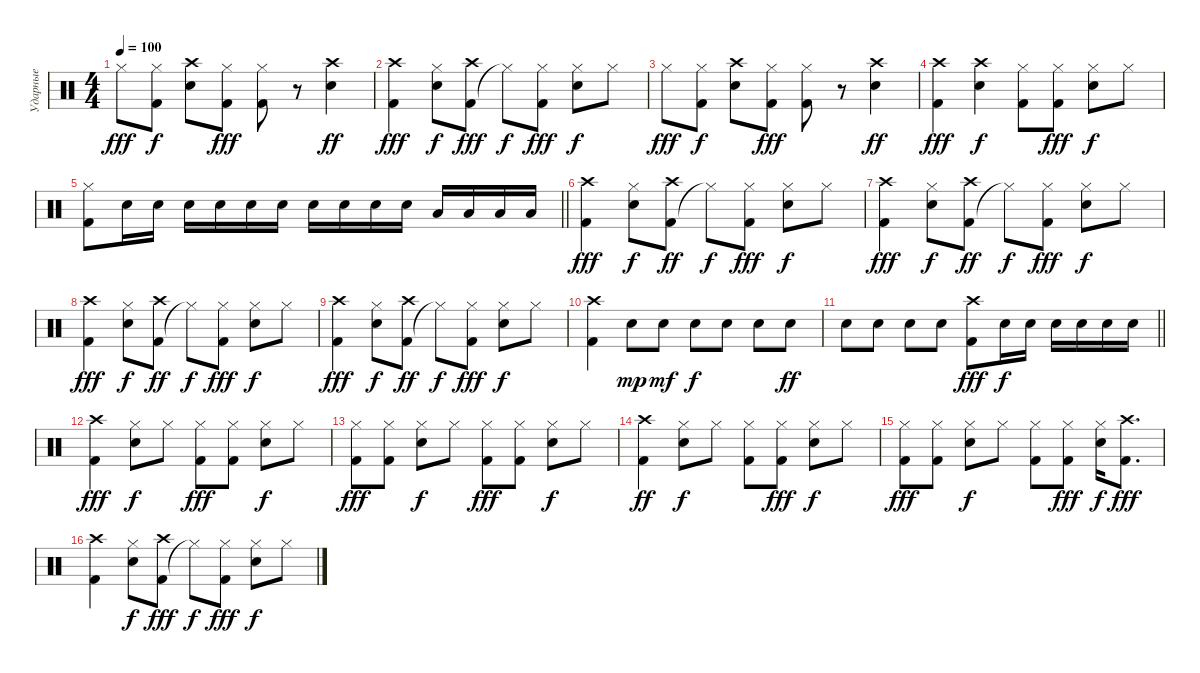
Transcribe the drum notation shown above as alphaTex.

\track ("Ударные" "Ударные") {instrument percussion}
\staff
\articulation defaults
\ts (4 4)
\tempo 100
\clef neutral
\ks c "Hi-Hat (closed)".8{dy fff}
("Kick (hit) 2" "Hi-Hat (closed)").8{dy f} ("Snare (hit) 2" "Crash high (hit)").8 ("Kick (hit) 2" "Hi-Hat (closed)").8{dy fff} ("Kick (hit) 2" "Hi-Hat (closed)").8 r.8 ("Snare (hit) 2" "Crash high (hit)").4{dy ff} |
("Kick (hit) 2" "Crash high (hit)").4{dy fff} ("Snare (hit) 2" "Hi-Hat (closed)").8{dy f} ("Kick (hit) 2" "Crash high (hit)").8{dy fff} "Hi-Hat (closed)"{t}.8{dy f} ("Kick (hit) 2" "Hi-Hat (closed)").8{dy fff} ("Snare (hit) 2" "Hi-Hat (closed)").8{dy f} "Hi-Hat (closed)".8 |
"Hi-Hat (closed)".8{dy fff} ("Kick (hit) 2" "Hi-Hat (closed)").8{dy f} ("Snare (hit) 2" "Crash high (hit)").8 ("Kick (hit) 2" "Hi-Hat (closed)").8{dy fff} ("Kick (hit) 2" "Hi-Hat (closed)").8 r.8 ("Snare (hit) 2" "Crash high (hit)").4{dy ff} |
("Kick (hit) 2" "Crash high (hit)").4{dy fff} ("Snare (hit) 2" "Crash high (hit)").4{dy f} ("Kick (hit) 2" "Hi-Hat (closed)").8 ("Kick (hit) 2" "Hi-Hat (closed)").8{dy fff} ("Snare (hit) 2" "Hi-Hat (closed)").8{dy f} "Hi-Hat (closed)".8 |
\barLineRight lightlight
("Kick (hit) 2" "Hi-Hat (closed)").8 "Snare (hit) 2".16 "Snare (hit) 2".16 "Snare (hit) 2".16 "Snare (hit) 2".16 "Electric Snare (hit)".16 "Electric Snare (hit)".16 "Electric Snare (hit)".16 "Electric Snare (hit)".16 "Electric Snare (hit)".16 "Electric Snare (hit)".16 "Low Tom (hit)".16 "Low Tom (hit)".16 "Low Tom (hit)".16 "Low Tom (hit)".16 |
("Kick (hit) 2" "Crash high (hit)").4{dy fff} ("Snare (hit) 2" "Hi-Hat (closed)").8{dy f} ("Kick (hit) 2" "Crash high (hit)").8{dy ff} "Hi-Hat (closed)"{t}.8{dy f} ("Kick (hit) 2" "Hi-Hat (closed)").8{dy fff} ("Snare (hit) 2" "Hi-Hat (closed)").8{dy f} "Hi-Hat (closed)".8 |
("Kick (hit) 2" "Crash high (hit)").4{dy fff} ("Snare (hit) 2" "Hi-Hat (closed)").8{dy f} ("Kick (hit) 2" "Crash high (hit)").8{dy ff} "Hi-Hat (closed)"{t}.8{dy f} ("Kick (hit) 2" "Hi-Hat (closed)").8{dy fff} ("Snare (hit) 2" "Hi-Hat (closed)").8{dy f} "Hi-Hat (closed)".8 |
("Kick (hit) 2" "Crash high (hit)").4{dy fff} ("Snare (hit) 2" "Hi-Hat (closed)").8{dy f} ("Kick (hit) 2" "Crash high (hit)").8{dy ff} "Hi-Hat (closed)"{t}.8{dy f} ("Kick (hit) 2" "Hi-Hat (closed)").8{dy fff} ("Snare (hit) 2" "Hi-Hat (closed)").8{dy f} "Hi-Hat (closed)".8 |
("Kick (hit) 2" "Crash high (hit)").4{dy fff} ("Snare (hit) 2" "Hi-Hat (closed)").8{dy f} ("Kick (hit) 2" "Crash high (hit)").8{dy ff} "Hi-Hat (closed)"{t}.8{dy f} ("Kick (hit) 2" "Hi-Hat (closed)").8{dy fff} ("Snare (hit) 2" "Hi-Hat (closed)").8{dy f} "Hi-Hat (closed)".8 |
("Kick (hit) 2" "Crash high (hit)").4 "Snare (hit) 2".8{dy mp} "Snare (hit) 2".8{dy mf} "Snare (hit) 2".8{dy f} "Snare (hit) 2".8 "Snare (hit) 2".8 "Snare (hit) 2".8{dy ff} |
\barLineRight lightlight "Snare (hit) 2".8 "Snare (hit) 2".8 "Snare (hit) 2".8 "Snare (hit) 2".8
("Kick (hit) 2" "Crash high (hit)").8{dy fff} "Snare (hit) 2".16{dy f} "Snare (hit) 2".16 "Snare (hit) 2".16 "Snare (hit) 2".16 "Snare (hit) 2".16 "Snare (hit) 2".16 |
("Kick (hit) 2" "Crash high (hit)").4{dy fff} ("Snare (hit) 2" "Hi-Hat (closed)").8{dy f} "Hi-Hat (closed)".8 ("Kick (hit) 2" "Hi-Hat (closed)").8{dy fff} ("Kick (hit) 2" "Hi-Hat (closed)").8 ("Snare (hit) 2" "Hi-Hat (closed)").8{dy f} "Hi-Hat (closed)".8 |
("Kick (hit) 2" "Hi-Hat (closed)").8{dy fff} ("Kick (hit) 2" "Hi-Hat (closed)").8 ("Snare (hit) 2" "Hi-Hat (closed)").8{dy f} "Hi-Hat (closed)".8 ("Kick (hit) 2" "Hi-Hat (closed)").8{dy fff} ("Kick (hit) 2" "Hi-Hat (closed)").8 ("Snare (hit) 2" "Hi-Hat (closed)").8{dy f} "Hi-Hat (closed)".8 |
("Kick (hit) 2" "Crash high (hit)").4{dy ff} ("Snare (hit) 2" "Hi-Hat (closed)").8{dy f} "Hi-Hat (closed)".8 ("Kick (hit) 2" "Hi-Hat (closed)").8 ("Kick (hit) 2" "Hi-Hat (closed)").8{dy fff} ("Snare (hit) 2" "Hi-Hat (closed)").8{dy f} "Hi-Hat (closed)".8 |
("Kick (hit) 2" "Hi-Hat (closed)").8{dy fff} ("Kick (hit) 2" "Hi-Hat (closed)").8 ("Snare (hit) 2" "Hi-Hat (closed)").8{dy f} "Hi-Hat (closed)".8 ("Kick (hit) 2" "Hi-Hat (closed)").8 ("Kick (hit) 2" "Hi-Hat (closed)").8{dy fff} ("Snare (hit) 2" "Hi-Hat (closed)").16{dy f} ("Kick (hit) 2" "Crash high (hit)").8{d dy fff} |
("Kick (hit) 2" "Crash high (hit)").4 ("Snare (hit) 2" "Hi-Hat (closed)").8{dy f} ("Kick (hit) 2" "Crash high (hit)").8{dy fff} "Hi-Hat (closed)"{t}.8{dy f} ("Kick (hit) 2" "Hi-Hat (closed)").8{dy fff} ("Snare (hit) 2" "Hi-Hat (closed)").8{dy f} "Hi-Hat (closed)".8
